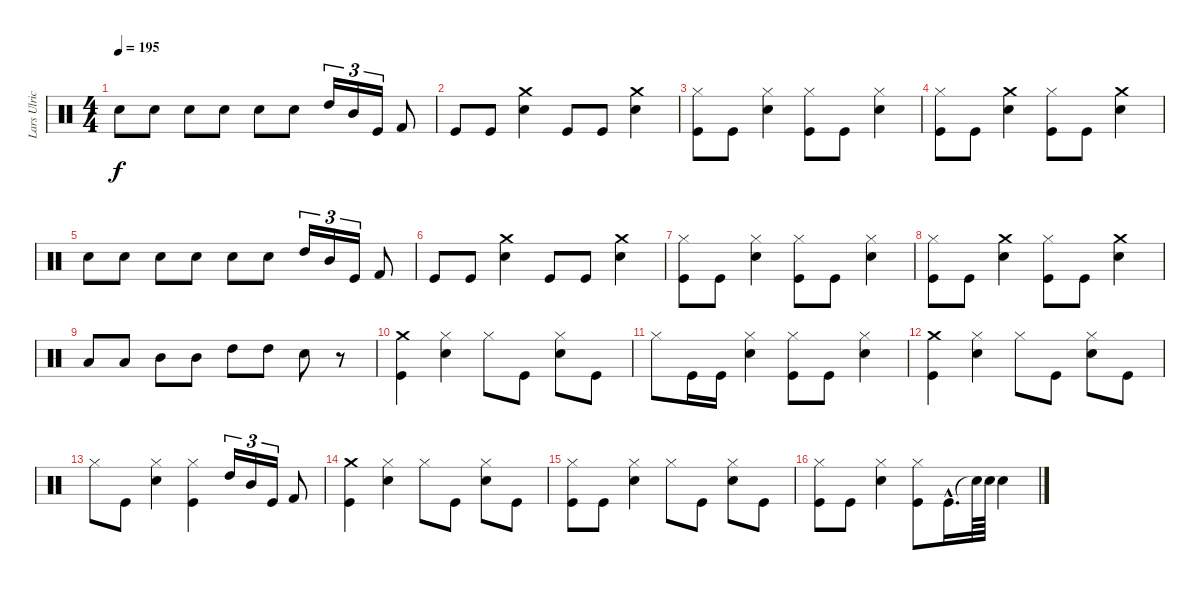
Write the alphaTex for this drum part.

\track ("Lars Ulrich (Drums)" "Lars Ulric") {instrument percussion}
\staff {score}
\articulation defaults
\ts (4 4)
\tempo 195
\clef neutral
\ks c "Snare (hit) 2".8{dy f} "Snare (hit) 2".8 "Snare (hit) 2".8 "Snare (hit) 2".8 "Snare (hit) 2".8 "Snare (hit) 2".8 "High Tom (hit)".16{tu (3 2)} "Mid Tom (hit)".16{tu (3 2)} "Kick (hit)".16{tu (3 2)} "Kick (hit) 2".8
|
"Kick (hit)".8 "Kick (hit)".8 ("Crash medium (hit)" "Snare (hit) 2").4 "Kick (hit)".8 "Kick (hit)".8 ("Crash medium (hit)" "Snare (hit) 2").4 |
("Kick (hit)" "Hi-Hat (closed)").8 "Kick (hit)".8 ("Snare (hit) 2" "Hi-Hat (closed)").4 ("Kick (hit)" "Hi-Hat (closed)").8 "Kick (hit)".8 ("Snare (hit) 2" "Hi-Hat (closed)").4 |
("Kick (hit)" "Hi-Hat (closed)").8 "Kick (hit)".8 ("Snare (hit) 2" "Crash medium (hit)").4 ("Kick (hit)" "Hi-Hat (closed)").8 "Kick (hit)".8 ("Crash medium (hit)" "Snare (hit) 2").4 |
"Snare (hit) 2".8 "Snare (hit) 2".8 "Snare (hit) 2".8 "Snare (hit) 2".8 "Snare (hit) 2".8 "Snare (hit) 2".8 "High Tom (hit)".16{tu (3 2)} "Mid Tom (hit)".16{tu (3 2)} "Kick (hit)".16{tu (3 2)} "Kick (hit) 2".8 |
"Kick (hit)".8 "Kick (hit)".8 ("Crash medium (hit)" "Snare (hit) 2").4 "Kick (hit)".8 "Kick (hit)".8 ("Crash medium (hit)" "Snare (hit) 2").4 |
("Kick (hit)" "Hi-Hat (closed)").8 "Kick (hit)".8 ("Snare (hit) 2" "Hi-Hat (closed)").4 ("Kick (hit)" "Hi-Hat (closed)").8 "Kick (hit)".8 ("Snare (hit) 2" "Hi-Hat (closed)").4 |
("Kick (hit)" "Hi-Hat (closed)").8 "Kick (hit)".8 ("Snare (hit) 2" "Crash medium (hit)").4 ("Kick (hit)" "Hi-Hat (closed)").8 "Kick (hit)".8 ("Crash medium (hit)" "Snare (hit) 2").4 |
"Low Tom (hit)".8 "Low Tom (hit)".8 "Mid Tom (hit)".8 "Mid Tom (hit)".8 "High Tom (hit)".8 "High Tom (hit)".8 "Snare (hit) 2".8 r.8 |
("Kick (hit)" "Crash medium (hit)").4 ("Snare (hit) 2" "Hi-Hat (closed)").4 "Hi-Hat (closed)".8 "Kick (hit)".8 ("Snare (hit) 2" "Hi-Hat (closed)").8 "Kick (hit)".8 |
"Hi-Hat (closed)".8 "Kick (hit)".16 "Kick (hit)".16 ("Snare (hit) 2" "Hi-Hat (closed)").4 ("Kick (hit)" "Hi-Hat (closed)").8 "Kick (hit)".8 ("Snare (hit) 2" "Hi-Hat (closed)").4 |
("Kick (hit)" "Crash medium (hit)").4 ("Hi-Hat (closed)" "Snare (hit) 2").4 "Hi-Hat (closed)".8 "Kick (hit)".8 ("Snare (hit) 2" "Hi-Hat (closed)").8 "Kick (hit)".8 |
"Hi-Hat (closed)".8 "Kick (hit)".8 ("Snare (hit) 2" "Hi-Hat (closed)").4 ("Kick (hit)" "Hi-Hat (closed)").4 "High Tom (hit)".16{tu (3 2)} "Mid Tom (hit)".16{tu (3 2)} "Kick (hit)".16{tu (3 2)} "Kick (hit) 2".8 |
("Kick (hit)" "Crash medium (hit)").4 ("Snare (hit) 2" "Hi-Hat (closed)").4 "Hi-Hat (closed)".8 "Kick (hit)".8 ("Snare (hit) 2" "Hi-Hat (closed)").8 "Kick (hit)".8 |
("Kick (hit)" "Hi-Hat (closed)").8 "Kick (hit)".8 ("Snare (hit) 2" "Hi-Hat (closed)").4 "Hi-Hat (closed)".8 "Kick (hit)".8 ("Snare (hit) 2" "Hi-Hat (closed)").8 "Kick (hit)".8 |
("Hi-Hat (closed)" "Kick (hit)").8 "Kick (hit)".8 ("Snare (hit) 2" "Hi-Hat (closed)").4 ("Hi-Hat (closed)" "Kick (hit)").8 "Kick (hit)"{hac}.16{d} "Snare (hit)"{t}.64 "Snare (hit) 2".64 "Snare (hit) 2".4
